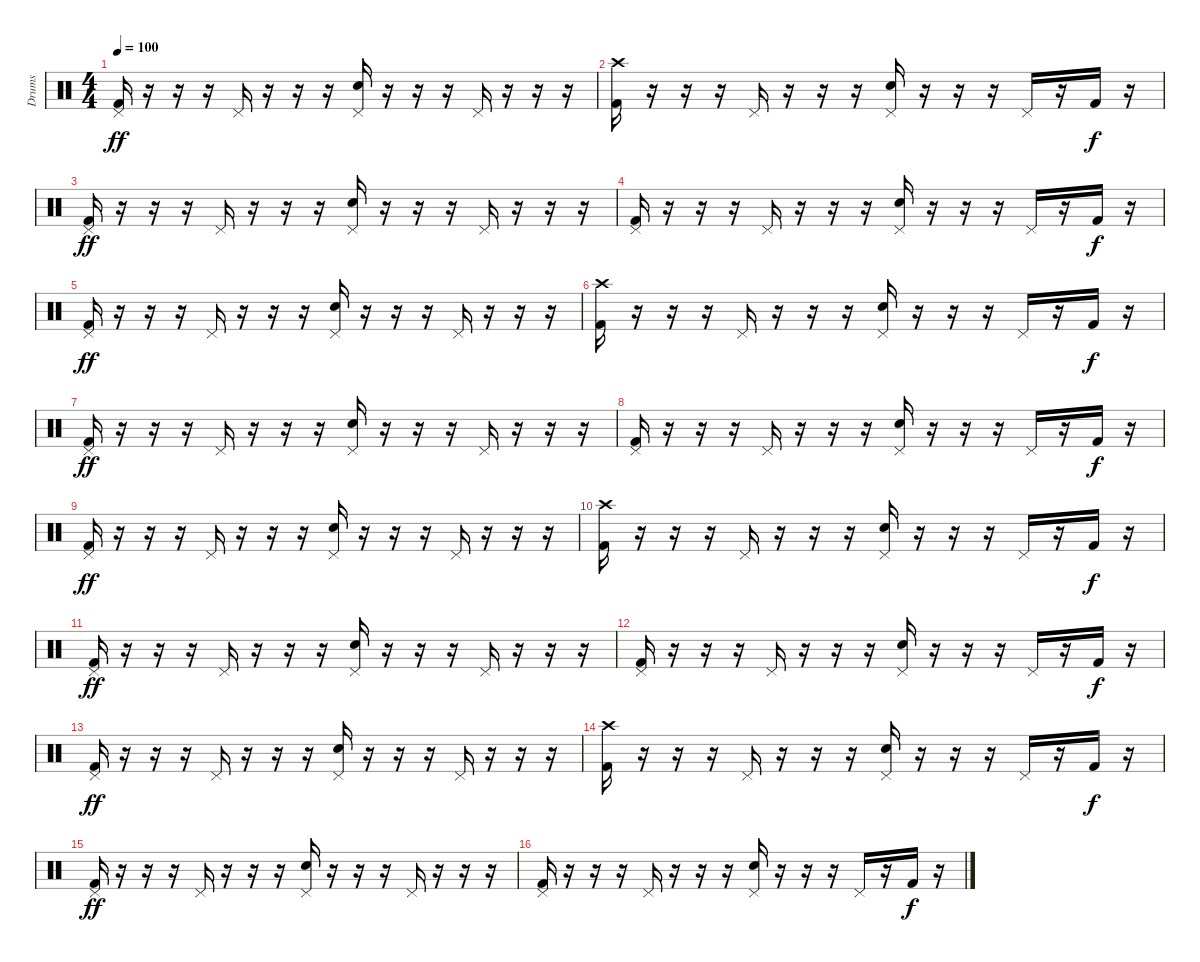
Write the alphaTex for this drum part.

\track ("Drums" "Drums") {instrument percussion}
\staff {score}
\articulation defaults
\ts (4 4)
\tempo 100
\clef neutral
\ks c
("Kick (hit) 2" "Pedal Hi-Hat (hit)").16{dy ff} r.16 r.16 r.16 "Pedal Hi-Hat (hit)".16 r.16 r.16 r.16 ("Electric Snare (hit)" "Pedal Hi-Hat (hit)").16 r.16 r.16 r.16 "Pedal Hi-Hat (hit)".16 r.16 r.16 r.16 |
("Kick (hit) 2" "Crash high (hit)").16 r.16 r.16 r.16 "Pedal Hi-Hat (hit)".16 r.16 r.16 r.16 ("Electric Snare (hit)" "Pedal Hi-Hat (hit)").16 r.16 r.16 r.16 "Pedal Hi-Hat (hit)".16 r.16 "Kick (hit) 2".16{dy f} r.16 |
("Kick (hit) 2" "Pedal Hi-Hat (hit)").16{dy ff} r.16 r.16 r.16 "Pedal Hi-Hat (hit)".16 r.16 r.16 r.16 ("Electric Snare (hit)" "Pedal Hi-Hat (hit)").16 r.16 r.16 r.16 "Pedal Hi-Hat (hit)".16 r.16 r.16 r.16 |
("Kick (hit) 2" "Pedal Hi-Hat (hit)").16 r.16 r.16 r.16 "Pedal Hi-Hat (hit)".16 r.16 r.16 r.16 ("Electric Snare (hit)" "Pedal Hi-Hat (hit)").16 r.16 r.16 r.16 "Pedal Hi-Hat (hit)".16 r.16 "Kick (hit) 2".16{dy f} r.16 |
("Kick (hit) 2" "Pedal Hi-Hat (hit)").16{dy ff} r.16 r.16 r.16 "Pedal Hi-Hat (hit)".16 r.16 r.16 r.16 ("Electric Snare (hit)" "Pedal Hi-Hat (hit)").16 r.16 r.16 r.16 "Pedal Hi-Hat (hit)".16 r.16 r.16 r.16 |
("Kick (hit) 2" "Crash high (hit)").16 r.16 r.16 r.16 "Pedal Hi-Hat (hit)".16 r.16 r.16 r.16 ("Electric Snare (hit)" "Pedal Hi-Hat (hit)").16 r.16 r.16 r.16 "Pedal Hi-Hat (hit)".16 r.16 "Kick (hit) 2".16{dy f} r.16 |
("Kick (hit) 2" "Pedal Hi-Hat (hit)").16{dy ff} r.16 r.16 r.16 "Pedal Hi-Hat (hit)".16 r.16 r.16 r.16 ("Electric Snare (hit)" "Pedal Hi-Hat (hit)").16 r.16 r.16 r.16 "Pedal Hi-Hat (hit)".16 r.16 r.16 r.16 |
("Kick (hit) 2" "Pedal Hi-Hat (hit)").16 r.16 r.16 r.16 "Pedal Hi-Hat (hit)".16 r.16 r.16 r.16 ("Electric Snare (hit)" "Pedal Hi-Hat (hit)").16 r.16 r.16 r.16 "Pedal Hi-Hat (hit)".16 r.16 "Kick (hit) 2".16{dy f} r.16 |
("Kick (hit) 2" "Pedal Hi-Hat (hit)").16{dy ff} r.16 r.16 r.16 "Pedal Hi-Hat (hit)".16 r.16 r.16 r.16 ("Electric Snare (hit)" "Pedal Hi-Hat (hit)").16 r.16 r.16 r.16 "Pedal Hi-Hat (hit)".16 r.16 r.16 r.16 |
("Kick (hit) 2" "Crash high (hit)").16 r.16 r.16 r.16 "Pedal Hi-Hat (hit)".16 r.16 r.16 r.16 ("Electric Snare (hit)" "Pedal Hi-Hat (hit)").16 r.16 r.16 r.16 "Pedal Hi-Hat (hit)".16 r.16 "Kick (hit) 2".16{dy f} r.16 |
("Kick (hit) 2" "Pedal Hi-Hat (hit)").16{dy ff} r.16 r.16 r.16 "Pedal Hi-Hat (hit)".16 r.16 r.16 r.16 ("Electric Snare (hit)" "Pedal Hi-Hat (hit)").16 r.16 r.16 r.16 "Pedal Hi-Hat (hit)".16 r.16 r.16 r.16 |
("Kick (hit) 2" "Pedal Hi-Hat (hit)").16 r.16 r.16 r.16 "Pedal Hi-Hat (hit)".16 r.16 r.16 r.16 ("Electric Snare (hit)" "Pedal Hi-Hat (hit)").16 r.16 r.16 r.16 "Pedal Hi-Hat (hit)".16 r.16 "Kick (hit) 2".16{dy f} r.16 |
("Kick (hit) 2" "Pedal Hi-Hat (hit)").16{dy ff} r.16 r.16 r.16 "Pedal Hi-Hat (hit)".16 r.16 r.16 r.16 ("Electric Snare (hit)" "Pedal Hi-Hat (hit)").16 r.16 r.16 r.16 "Pedal Hi-Hat (hit)".16 r.16 r.16 r.16 |
("Kick (hit) 2" "Crash high (hit)").16 r.16 r.16 r.16 "Pedal Hi-Hat (hit)".16 r.16 r.16 r.16 ("Electric Snare (hit)" "Pedal Hi-Hat (hit)").16 r.16 r.16 r.16 "Pedal Hi-Hat (hit)".16 r.16 "Kick (hit) 2".16{dy f} r.16 |
("Kick (hit) 2" "Pedal Hi-Hat (hit)").16{dy ff} r.16 r.16 r.16 "Pedal Hi-Hat (hit)".16 r.16 r.16 r.16 ("Electric Snare (hit)" "Pedal Hi-Hat (hit)").16 r.16 r.16 r.16 "Pedal Hi-Hat (hit)".16 r.16 r.16 r.16 |
("Kick (hit) 2" "Pedal Hi-Hat (hit)").16 r.16 r.16 r.16 "Pedal Hi-Hat (hit)".16 r.16 r.16 r.16 ("Electric Snare (hit)" "Pedal Hi-Hat (hit)").16 r.16 r.16 r.16 "Pedal Hi-Hat (hit)".16 r.16 "Kick (hit) 2".16{dy f} r.16
